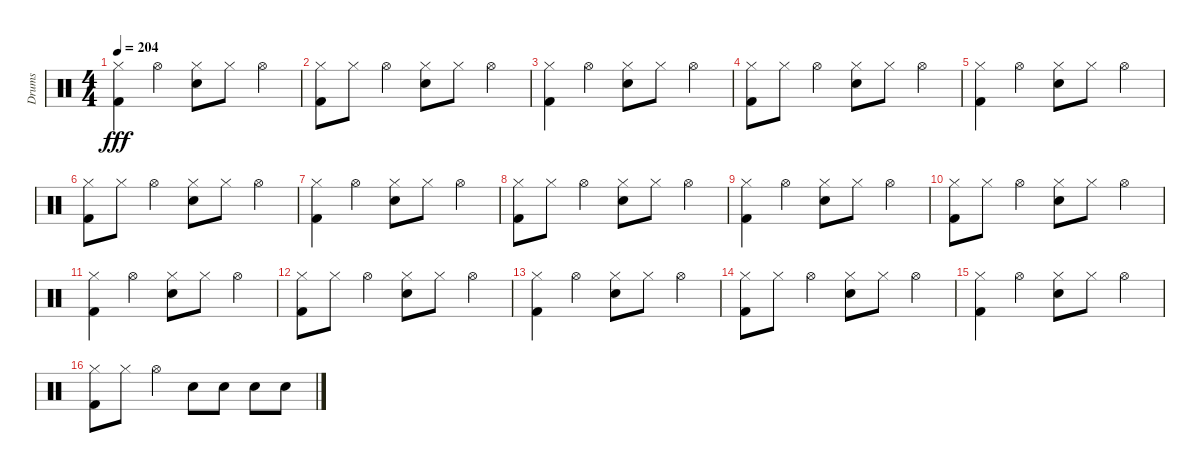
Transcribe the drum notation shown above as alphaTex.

\track ("Drums" "Drums") {instrument percussion}
\staff {score}
\articulation defaults
\ts (4 4)
\tempo 204
\clef neutral
\ks c
("Kick (hit) 2" "Hi-Hat (closed)").4{dy fff} "Hi-Hat (open)".4 ("Snare (hit) 2" "Hi-Hat (closed)").8 "Hi-Hat (closed)".8 "Hi-Hat (open)".4 |
("Kick (hit) 2" "Hi-Hat (closed)").8 "Hi-Hat (closed)".8 "Hi-Hat (open)".4 ("Snare (hit) 2" "Hi-Hat (closed)").8 "Hi-Hat (closed)".8 "Hi-Hat (open)".4 |
("Kick (hit) 2" "Hi-Hat (closed)").4 "Hi-Hat (open)".4 ("Snare (hit) 2" "Hi-Hat (closed)").8 "Hi-Hat (closed)".8 "Hi-Hat (open)".4 |
("Kick (hit) 2" "Hi-Hat (closed)").8 "Hi-Hat (closed)".8 "Hi-Hat (open)".4 ("Snare (hit) 2" "Hi-Hat (closed)").8 "Hi-Hat (closed)".8 "Hi-Hat (open)".4 |
("Kick (hit) 2" "Hi-Hat (closed)").4 "Hi-Hat (open)".4 ("Snare (hit) 2" "Hi-Hat (closed)").8 "Hi-Hat (closed)".8 "Hi-Hat (open)".4 |
("Kick (hit) 2" "Hi-Hat (closed)").8 "Hi-Hat (closed)".8 "Hi-Hat (open)".4 ("Snare (hit) 2" "Hi-Hat (closed)").8 "Hi-Hat (closed)".8 "Hi-Hat (open)".4 |
("Kick (hit) 2" "Hi-Hat (closed)").4 "Hi-Hat (open)".4 ("Snare (hit) 2" "Hi-Hat (closed)").8 "Hi-Hat (closed)".8 "Hi-Hat (open)".4 |
("Kick (hit) 2" "Hi-Hat (closed)").8 "Hi-Hat (closed)".8 "Hi-Hat (open)".4 ("Snare (hit) 2" "Hi-Hat (closed)").8 "Hi-Hat (closed)".8 "Hi-Hat (open)".4 |
("Kick (hit) 2" "Hi-Hat (closed)").4 "Hi-Hat (open)".4 ("Snare (hit) 2" "Hi-Hat (closed)").8 "Hi-Hat (closed)".8 "Hi-Hat (open)".4 |
("Kick (hit) 2" "Hi-Hat (closed)").8 "Hi-Hat (closed)".8 "Hi-Hat (open)".4 ("Snare (hit) 2" "Hi-Hat (closed)").8 "Hi-Hat (closed)".8 "Hi-Hat (open)".4 |
("Kick (hit) 2" "Hi-Hat (closed)").4 "Hi-Hat (open)".4 ("Snare (hit) 2" "Hi-Hat (closed)").8 "Hi-Hat (closed)".8 "Hi-Hat (open)".4 |
("Kick (hit) 2" "Hi-Hat (closed)").8 "Hi-Hat (closed)".8 "Hi-Hat (open)".4 ("Snare (hit) 2" "Hi-Hat (closed)").8 "Hi-Hat (closed)".8 "Hi-Hat (open)".4 |
("Kick (hit) 2" "Hi-Hat (closed)").4 "Hi-Hat (open)".4 ("Snare (hit) 2" "Hi-Hat (closed)").8 "Hi-Hat (closed)".8 "Hi-Hat (open)".4 |
("Kick (hit) 2" "Hi-Hat (closed)").8 "Hi-Hat (closed)".8 "Hi-Hat (open)".4 ("Snare (hit) 2" "Hi-Hat (closed)").8 "Hi-Hat (closed)".8 "Hi-Hat (open)".4 |
("Kick (hit) 2" "Hi-Hat (closed)").4 "Hi-Hat (open)".4 ("Snare (hit) 2" "Hi-Hat (closed)").8 "Hi-Hat (closed)".8 "Hi-Hat (open)".4 |
("Kick (hit) 2" "Hi-Hat (closed)").8 "Hi-Hat (closed)".8 "Hi-Hat (open)".4 "Snare (hit) 2".8 "Snare (hit) 2".8 "Snare (hit) 2".8 "Snare (hit) 2".8
